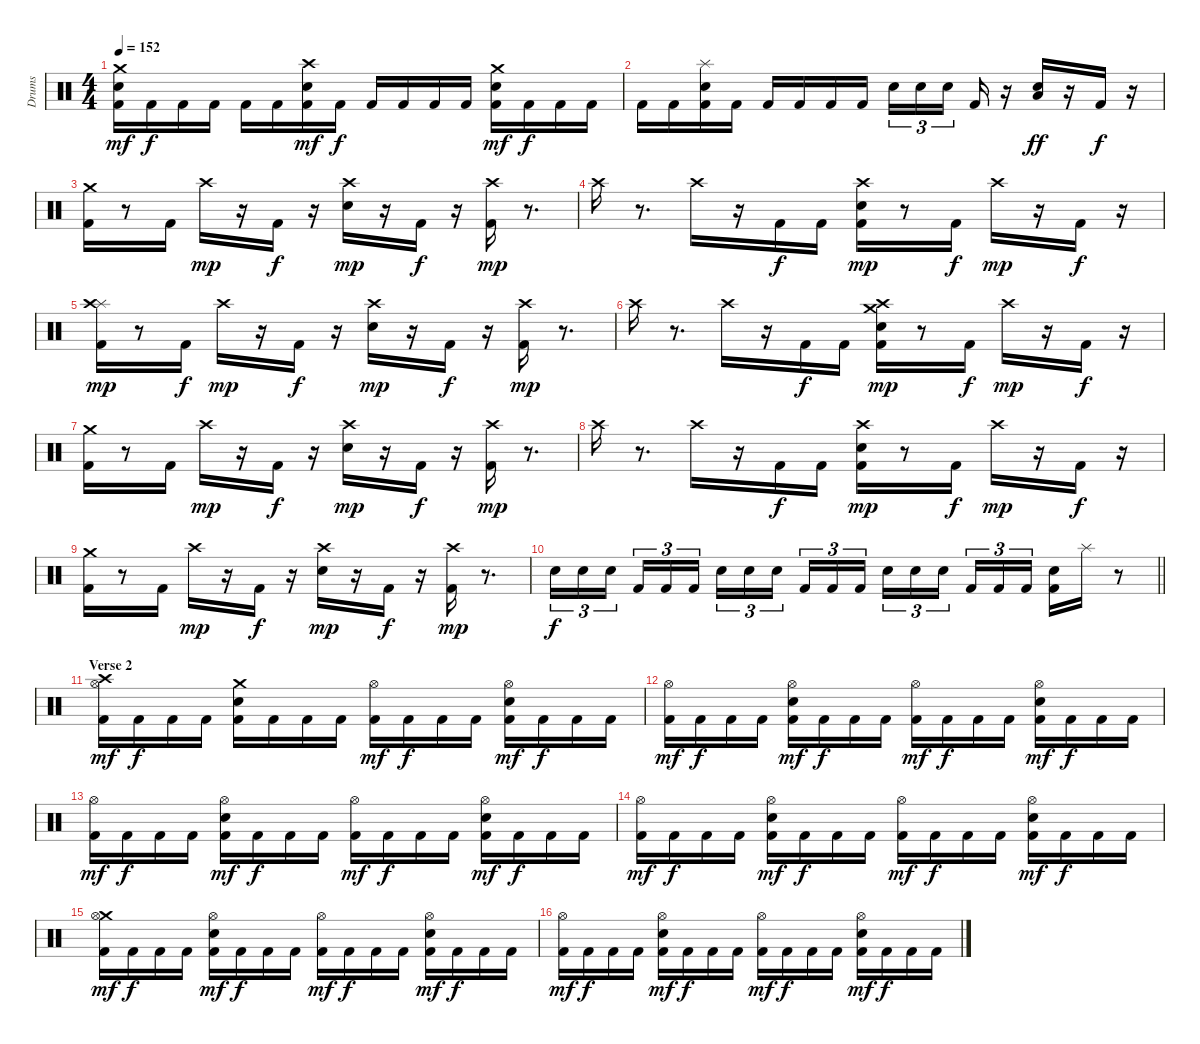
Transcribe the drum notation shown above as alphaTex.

\track ("Drums" "Drums") {instrument percussion}
\staff {score}
\articulation defaults
\ts (4 4)
\tempo 152
\clef neutral
\ks c
("Crash medium (hit)" "Snare (hit) 2" "Kick (hit) 2").16{dy mf} "Kick (hit) 2".16{dy f} "Kick (hit) 2".16 "Kick (hit) 2".16 "Kick (hit) 2".16 "Kick (hit) 2".16 ("Crash high (hit)" "Snare (hit) 2" "Kick (hit) 2").16{dy mf} "Kick (hit) 2".16{dy f} "Kick (hit) 2".16 "Kick (hit) 2".16 "Kick (hit) 2".16 "Kick (hit) 2".16 ("Crash medium (hit)" "Snare (hit) 2" "Kick (hit) 2").16{dy mf} "Kick (hit) 2".16{dy f} "Kick (hit) 2".16 "Kick (hit) 2".16 |
"Kick (hit) 2".16 "Kick (hit) 2".16 ("Splash (hit)" "Snare (hit) 2" "Kick (hit) 2").16 "Kick (hit) 2".16 "Kick (hit) 2".16 "Kick (hit) 2".16 "Kick (hit) 2".16 "Kick (hit) 2".16 "Snare (hit) 2".16{tu (3 2)} "Snare (hit) 2".16{tu (3 2)} "Snare (hit) 2".16{tu (3 2)} "Kick (hit) 2".16 r.16 ("Low Floor Tom (hit)" "Snare (hit) 2").16{dy ff} r.16 "Kick (hit) 2".16{dy f} r.16 |
("Crash medium (hit)" "Kick (hit) 2").16 r.8 "Kick (hit) 2".16 "Crash high (hit)".16{dy mp} r.16 "Kick (hit) 2".16{dy f} r.16 ("Crash high (hit)" "Snare (hit) 2").16{dy mp} r.16 "Kick (hit) 2".16{dy f} r.16 ("Crash high (hit)" "Kick (hit) 2").16{dy mp} r.8{d} |
"Crash high (hit)".16 r.8{d} "Crash high (hit)".16 r.16 "Kick (hit) 2".16{dy f} "Kick (hit) 2".16 ("Crash high (hit)" "Snare (hit) 2" "Kick (hit) 2").16{dy mp} r.8 "Kick (hit) 2".16{dy f} "Crash high (hit)".16{dy mp} r.16 "Kick (hit) 2".16{dy f} r.16 |
("Splash (hit)" "Crash high (hit)" "Kick (hit) 2").16{dy mp} r.8 "Kick (hit) 2".16{dy f} "Crash high (hit)".16{dy mp} r.16 "Kick (hit) 2".16{dy f} r.16 ("Crash high (hit)" "Snare (hit) 2").16{dy mp} r.16 "Kick (hit) 2".16{dy f} r.16 ("Crash high (hit)" "Kick (hit) 2").16{dy mp} r.8{d} |
"Crash high (hit)".16 r.8{d} "Crash high (hit)".16 r.16 "Kick (hit) 2".16{dy f} "Kick (hit) 2".16 ("Crash medium (hit)" "Crash high (hit)" "Snare (hit) 2" "Kick (hit) 2").16{dy mp} r.8 "Kick (hit) 2".16{dy f} "Crash high (hit)".16{dy mp} r.16 "Kick (hit) 2".16{dy f} r.16 |
("Crash medium (hit)" "Kick (hit) 2").16 r.8 "Kick (hit) 2".16 "Crash high (hit)".16{dy mp} r.16 "Kick (hit) 2".16{dy f} r.16 ("Crash high (hit)" "Snare (hit) 2").16{dy mp} r.16 "Kick (hit) 2".16{dy f} r.16 ("Crash high (hit)" "Kick (hit) 2").16{dy mp} r.8{d} |
"Crash high (hit)".16 r.8{d} "Crash high (hit)".16 r.16 "Kick (hit) 2".16{dy f} "Kick (hit) 2".16 ("Crash high (hit)" "Snare (hit) 2" "Kick (hit) 2").16{dy mp} r.8 "Kick (hit) 2".16{dy f} "Crash high (hit)".16{dy mp} r.16 "Kick (hit) 2".16{dy f} r.16 |
("Crash medium (hit)" "Kick (hit) 2").16 r.8 "Kick (hit) 2".16 "Crash high (hit)".16{dy mp} r.16 "Kick (hit) 2".16{dy f} r.16 ("Crash high (hit)" "Snare (hit) 2").16{dy mp} r.16 "Kick (hit) 2".16{dy f} r.16 ("Crash high (hit)" "Kick (hit) 2").16{dy mp} r.8{d} |
\barLineRight lightlight "Snare (hit) 2".16{tu (3 2) dy f} "Snare (hit) 2".16{tu (3 2)} "Snare (hit) 2".16{tu (3 2)} "Kick (hit) 2".16{tu (3 2)} "Kick (hit) 2".16{tu (3 2)} "Kick (hit) 2".16{tu (3 2)} "Snare (hit) 2".16{tu (3 2)} "Snare (hit) 2".16{tu (3 2)} "Snare (hit) 2".16{tu (3 2)} "Kick (hit) 2".16{tu (3 2)} "Kick (hit) 2".16{tu (3 2)} "Kick (hit) 2".16{tu (3 2)} "Snare (hit) 2".16{tu (3 2)} "Snare (hit) 2".16{tu (3 2)} "Snare (hit) 2".16{tu (3 2)} "Kick (hit) 2".16{tu (3 2)} "Kick (hit) 2".16{tu (3 2)} "Kick (hit) 2".16{tu (3 2)}
("Snare (hit) 2" "Kick (hit) 2").16 "Splash (hit)".16 r.8 |
\section ("" "Verse 2")
("Crash high (hit)" "Hi-Hat (open)" "Kick (hit) 2").16{dy mf} "Kick (hit) 2".16{dy f} "Kick (hit) 2".16 "Kick (hit) 2".16 ("Crash medium (hit)" "Snare (hit) 2" "Kick (hit) 2").16 "Kick (hit) 2".16 "Kick (hit) 2".16 "Kick (hit) 2".16 ("Hi-Hat (open)" "Kick (hit) 2").16{dy mf} "Kick (hit) 2".16{dy f} "Kick (hit) 2".16 "Kick (hit) 2".16 ("Hi-Hat (open)" "Snare (hit) 2" "Kick (hit) 2").16{dy mf} "Kick (hit) 2".16{dy f} "Kick (hit) 2".16 "Kick (hit) 2".16 |
("Hi-Hat (open)" "Kick (hit) 2").16{dy mf} "Kick (hit) 2".16{dy f} "Kick (hit) 2".16 "Kick (hit) 2".16 ("Hi-Hat (open)" "Snare (hit) 2" "Kick (hit) 2").16{dy mf} "Kick (hit) 2".16{dy f} "Kick (hit) 2".16 "Kick (hit) 2".16 ("Hi-Hat (open)" "Kick (hit) 2").16{dy mf} "Kick (hit) 2".16{dy f} "Kick (hit) 2".16 "Kick (hit) 2".16 ("Hi-Hat (open)" "Snare (hit) 2" "Kick (hit) 2").16{dy mf} "Kick (hit) 2".16{dy f} "Kick (hit) 2".16 "Kick (hit) 2".16 |
("Hi-Hat (open)" "Kick (hit) 2").16{dy mf} "Kick (hit) 2".16{dy f} "Kick (hit) 2".16 "Kick (hit) 2".16 ("Hi-Hat (open)" "Snare (hit) 2" "Kick (hit) 2").16{dy mf} "Kick (hit) 2".16{dy f} "Kick (hit) 2".16 "Kick (hit) 2".16 ("Hi-Hat (open)" "Kick (hit) 2").16{dy mf} "Kick (hit) 2".16{dy f} "Kick (hit) 2".16 "Kick (hit) 2".16 ("Hi-Hat (open)" "Snare (hit) 2" "Kick (hit) 2").16{dy mf} "Kick (hit) 2".16{dy f} "Kick (hit) 2".16 "Kick (hit) 2".16 |
("Hi-Hat (open)" "Kick (hit) 2").16{dy mf} "Kick (hit) 2".16{dy f} "Kick (hit) 2".16 "Kick (hit) 2".16 ("Hi-Hat (open)" "Snare (hit) 2" "Kick (hit) 2").16{dy mf} "Kick (hit) 2".16{dy f} "Kick (hit) 2".16 "Kick (hit) 2".16 ("Hi-Hat (open)" "Kick (hit) 2").16{dy mf} "Kick (hit) 2".16{dy f} "Kick (hit) 2".16 "Kick (hit) 2".16 ("Hi-Hat (open)" "Snare (hit) 2" "Kick (hit) 2").16{dy mf} "Kick (hit) 2".16{dy f} "Kick (hit) 2".16 "Kick (hit) 2".16 |
("Crash medium (hit)" "Hi-Hat (open)" "Kick (hit) 2").16{dy mf} "Kick (hit) 2".16{dy f} "Kick (hit) 2".16 "Kick (hit) 2".16 ("Hi-Hat (open)" "Snare (hit) 2" "Kick (hit) 2").16{dy mf} "Kick (hit) 2".16{dy f} "Kick (hit) 2".16 "Kick (hit) 2".16 ("Hi-Hat (open)" "Kick (hit) 2").16{dy mf} "Kick (hit) 2".16{dy f} "Kick (hit) 2".16 "Kick (hit) 2".16 ("Hi-Hat (open)" "Snare (hit) 2" "Kick (hit) 2").16{dy mf} "Kick (hit) 2".16{dy f} "Kick (hit) 2".16 "Kick (hit) 2".16 |
("Hi-Hat (open)" "Kick (hit) 2").16{dy mf} "Kick (hit) 2".16{dy f} "Kick (hit) 2".16 "Kick (hit) 2".16 ("Hi-Hat (open)" "Snare (hit) 2" "Kick (hit) 2").16{dy mf} "Kick (hit) 2".16{dy f} "Kick (hit) 2".16 "Kick (hit) 2".16 ("Hi-Hat (open)" "Kick (hit) 2").16{dy mf} "Kick (hit) 2".16{dy f} "Kick (hit) 2".16 "Kick (hit) 2".16 ("Hi-Hat (open)" "Snare (hit) 2" "Kick (hit) 2").16{dy mf} "Kick (hit) 2".16{dy f} "Kick (hit) 2".16 "Kick (hit) 2".16
